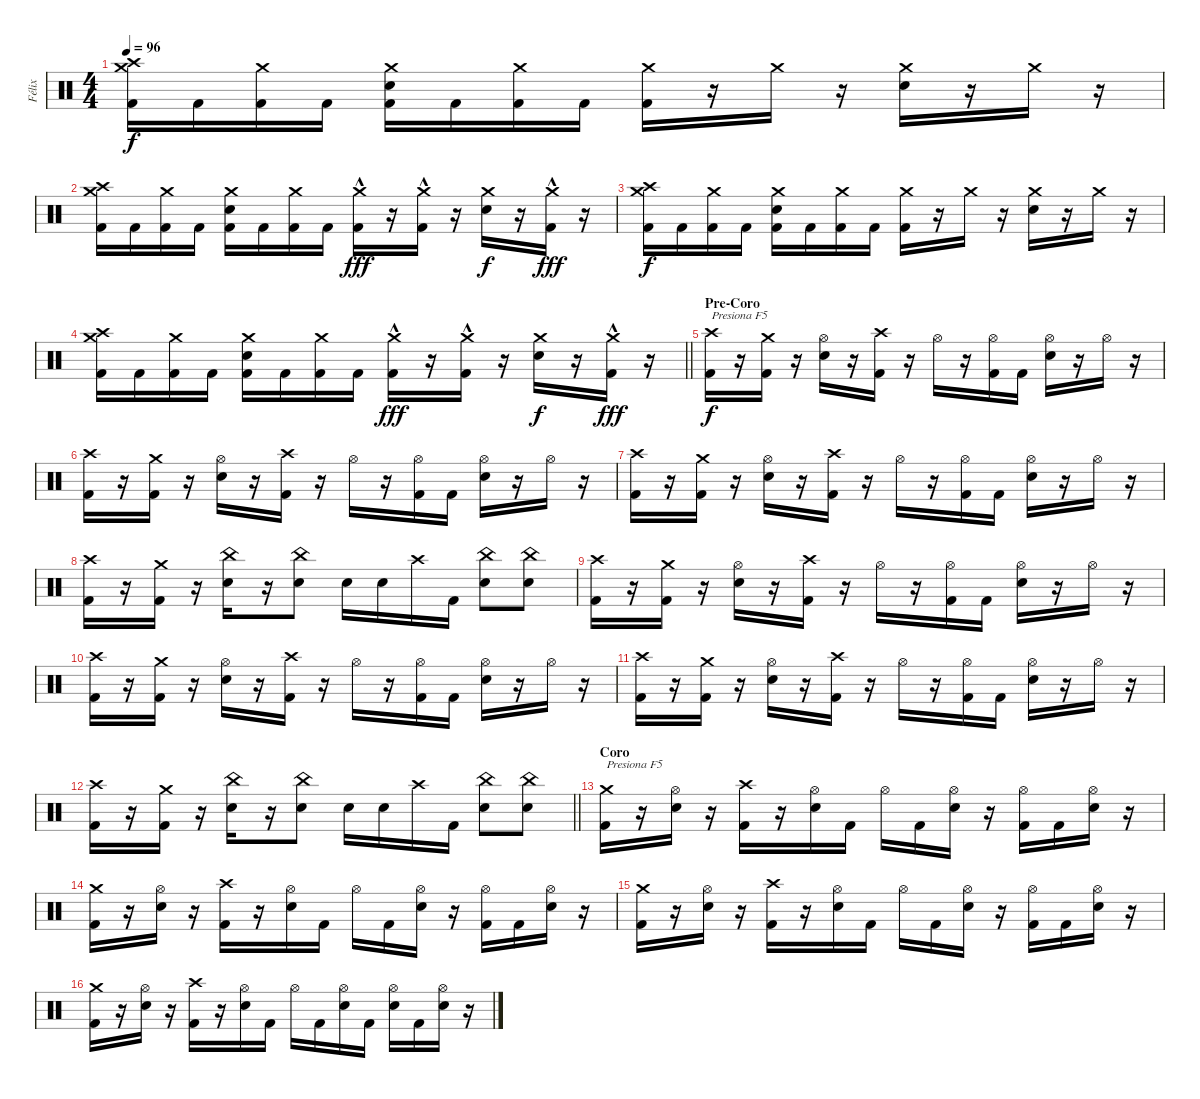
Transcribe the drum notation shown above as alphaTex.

\track ("Félix" "Félix") {instrument percussion}
\staff {score}
\articulation defaults
\ts (4 4)
\tempo 96
\clef neutral
\ks c
("Crash high (hit)" "Crash medium (hit)" "Kick (hit) 2").16{dy f} "Kick (hit) 2".16 ("Crash medium (hit)" "Kick (hit) 2").16 "Kick (hit) 2".16 ("Crash medium (hit)" "Snare (hit) 2" "Kick (hit) 2").16 "Kick (hit) 2".16 ("Crash medium (hit)" "Kick (hit) 2").16 "Kick (hit) 2".16 ("Crash medium (hit)" "Kick (hit) 2").16 r.16 "Crash medium (hit)".16 r.16 ("Crash medium (hit)" "Snare (hit) 2").16 r.16 "Crash medium (hit)".16 r.16 |
("Crash high (hit)" "Crash medium (hit)" "Kick (hit) 2").16 "Kick (hit) 2".16 ("Crash medium (hit)" "Kick (hit) 2").16 "Kick (hit) 2".16 ("Crash medium (hit)" "Snare (hit) 2" "Kick (hit) 2").16 "Kick (hit) 2".16 ("Crash medium (hit)" "Kick (hit) 2").16 "Kick (hit) 2".16 ("Crash medium (hit)" "Kick (hit) 2"{hac}).16{dy fff} r.16 ("Crash medium (hit)" "Kick (hit) 2"{hac}).16 r.16 ("Crash medium (hit)" "Snare (hit) 2").16{dy f} r.16 ("Crash medium (hit)" "Kick (hit) 2"{hac}).16{dy fff} r.16 |
("Crash high (hit)" "Crash medium (hit)" "Kick (hit) 2").16{dy f} "Kick (hit) 2".16 ("Crash medium (hit)" "Kick (hit) 2").16 "Kick (hit) 2".16 ("Crash medium (hit)" "Snare (hit) 2" "Kick (hit) 2").16 "Kick (hit) 2".16 ("Crash medium (hit)" "Kick (hit) 2").16 "Kick (hit) 2".16 ("Crash medium (hit)" "Kick (hit) 2").16 r.16 "Crash medium (hit)".16 r.16 ("Crash medium (hit)" "Snare (hit) 2").16 r.16 "Crash medium (hit)".16 r.16 |
\barLineRight lightlight
("Crash high (hit)" "Crash medium (hit)" "Kick (hit) 2").16 "Kick (hit) 2".16 ("Crash medium (hit)" "Kick (hit) 2").16 "Kick (hit) 2".16 ("Crash medium (hit)" "Snare (hit) 2" "Kick (hit) 2").16 "Kick (hit) 2".16 ("Crash medium (hit)" "Kick (hit) 2").16 "Kick (hit) 2".16 ("Crash medium (hit)" "Kick (hit) 2"{hac}).16{dy fff} r.16 ("Crash medium (hit)" "Kick (hit) 2"{hac}).16 r.16 ("Crash medium (hit)" "Snare (hit) 2").16{dy f} r.16 ("Crash medium (hit)" "Kick (hit) 2"{hac}).16{dy fff} r.16 |
\section ("" "Pre-Coro ")
("Crash high (hit)" "Kick (hit) 2").16{txt "Presiona F5" dy f} r.16 ("Crash medium (hit)" "Kick (hit) 2").16 r.16 ("Hi-Hat (open)" "Snare (hit) 2").16 r.16 ("Crash high (hit)" "Kick (hit) 2").16 r.16 "Hi-Hat (open)".16 r.16 ("Hi-Hat (open)" "Kick (hit) 2").16 "Kick (hit) 2".16 ("Hi-Hat (open)" "Snare (hit) 2").16 r.16 "Hi-Hat (open)".16 r.16 |
("Crash high (hit)" "Kick (hit) 2").16 r.16 ("Crash medium (hit)" "Kick (hit) 2").16 r.16 ("Hi-Hat (open)" "Snare (hit) 2").16 r.16 ("Crash high (hit)" "Kick (hit) 2").16 r.16 "Hi-Hat (open)".16 r.16 ("Hi-Hat (open)" "Kick (hit) 2").16 "Kick (hit) 2".16 ("Hi-Hat (open)" "Snare (hit) 2").16 r.16 "Hi-Hat (open)".16 r.16 |
("Crash high (hit)" "Kick (hit) 2").16 r.16 ("Crash medium (hit)" "Kick (hit) 2").16 r.16 ("Hi-Hat (open)" "Snare (hit) 2").16 r.16 ("Crash high (hit)" "Kick (hit) 2").16 r.16 "Hi-Hat (open)".16 r.16 ("Hi-Hat (open)" "Kick (hit) 2").16 "Kick (hit) 2".16 ("Hi-Hat (open)" "Snare (hit) 2").16 r.16 "Hi-Hat (open)".16 r.16 |
("Crash high (hit)" "Kick (hit) 2").16 r.16 ("Crash medium (hit)" "Kick (hit) 2").16 r.16 ("China (hit)" "Snare (hit) 2").16 r.16 ("China (hit)" "Snare (hit) 2").8 "Snare (hit) 2".16 "Snare (hit) 2".16 "Crash high (hit)".16 "Kick (hit) 2".16 ("China (hit)" "Snare (hit) 2").8 ("China (hit)" "Snare (hit) 2").8 |
("Crash high (hit)" "Kick (hit) 2").16 r.16 ("Crash medium (hit)" "Kick (hit) 2").16 r.16 ("Hi-Hat (open)" "Snare (hit) 2").16 r.16 ("Crash high (hit)" "Kick (hit) 2").16 r.16 "Hi-Hat (open)".16 r.16 ("Hi-Hat (open)" "Kick (hit) 2").16 "Kick (hit) 2".16 ("Hi-Hat (open)" "Snare (hit) 2").16 r.16 "Hi-Hat (open)".16 r.16 |
("Crash high (hit)" "Kick (hit) 2").16 r.16 ("Crash medium (hit)" "Kick (hit) 2").16 r.16 ("Hi-Hat (open)" "Snare (hit) 2").16 r.16 ("Crash high (hit)" "Kick (hit) 2").16 r.16 "Hi-Hat (open)".16 r.16 ("Hi-Hat (open)" "Kick (hit) 2").16 "Kick (hit) 2".16 ("Hi-Hat (open)" "Snare (hit) 2").16 r.16 "Hi-Hat (open)".16 r.16 |
("Crash high (hit)" "Kick (hit) 2").16 r.16 ("Crash medium (hit)" "Kick (hit) 2").16 r.16 ("Hi-Hat (open)" "Snare (hit) 2").16 r.16 ("Crash high (hit)" "Kick (hit) 2").16 r.16 "Hi-Hat (open)".16 r.16 ("Hi-Hat (open)" "Kick (hit) 2").16 "Kick (hit) 2".16 ("Hi-Hat (open)" "Snare (hit) 2").16 r.16 "Hi-Hat (open)".16 r.16 |
\barLineRight lightlight
("Crash high (hit)" "Kick (hit) 2").16 r.16 ("Crash medium (hit)" "Kick (hit) 2").16 r.16 ("China (hit)" "Snare (hit) 2").16 r.16 ("China (hit)" "Snare (hit) 2").8 "Snare (hit) 2".16 "Snare (hit) 2".16 "Crash high (hit)".16 "Kick (hit) 2".16 ("China (hit)" "Snare (hit) 2").8 ("China (hit)" "Snare (hit) 2").8 |
\section ("" "Coro")
("Crash medium (hit)" "Kick (hit) 2").16{txt "Presiona F5"} r.16 ("Hi-Hat (open)" "Snare (hit) 2").16 r.16 ("Crash high (hit)" "Kick (hit) 2").16 r.16 ("Hi-Hat (open)" "Snare (hit) 2").16 "Kick (hit) 2".16 "Hi-Hat (open)".16 "Kick (hit) 2".16 ("Hi-Hat (open)" "Snare (hit) 2").16 r.16 ("Hi-Hat (open)" "Kick (hit) 2").16 "Kick (hit) 2".16 ("Hi-Hat (open)" "Snare (hit) 2").16 r.16 |
("Crash medium (hit)" "Kick (hit) 2").16 r.16 ("Hi-Hat (open)" "Snare (hit) 2").16 r.16 ("Crash high (hit)" "Kick (hit) 2").16 r.16 ("Hi-Hat (open)" "Snare (hit) 2").16 "Kick (hit) 2".16 "Hi-Hat (open)".16 "Kick (hit) 2".16 ("Hi-Hat (open)" "Snare (hit) 2").16 r.16 ("Hi-Hat (open)" "Kick (hit) 2").16 "Kick (hit) 2".16 ("Hi-Hat (open)" "Snare (hit) 2").16 r.16 |
("Crash medium (hit)" "Kick (hit) 2").16 r.16 ("Hi-Hat (open)" "Snare (hit) 2").16 r.16 ("Crash high (hit)" "Kick (hit) 2").16 r.16 ("Hi-Hat (open)" "Snare (hit) 2").16 "Kick (hit) 2".16 "Hi-Hat (open)".16 "Kick (hit) 2".16 ("Hi-Hat (open)" "Snare (hit) 2").16 r.16 ("Hi-Hat (open)" "Kick (hit) 2").16 "Kick (hit) 2".16 ("Hi-Hat (open)" "Snare (hit) 2").16 r.16 |
("Crash medium (hit)" "Kick (hit) 2").16 r.16 ("Hi-Hat (open)" "Snare (hit) 2").16 r.16 ("Crash high (hit)" "Kick (hit) 2").16 r.16 ("Hi-Hat (open)" "Snare (hit) 2").16 "Kick (hit) 2".16 "Hi-Hat (open)".16 "Kick (hit) 2".16 ("Hi-Hat (open)" "Snare (hit) 2").16 "Kick (hit) 2".16 ("Hi-Hat (open)" "Snare (hit) 2").16 "Kick (hit) 2".16 ("Hi-Hat (open)" "Snare (hit) 2").16 r.16
